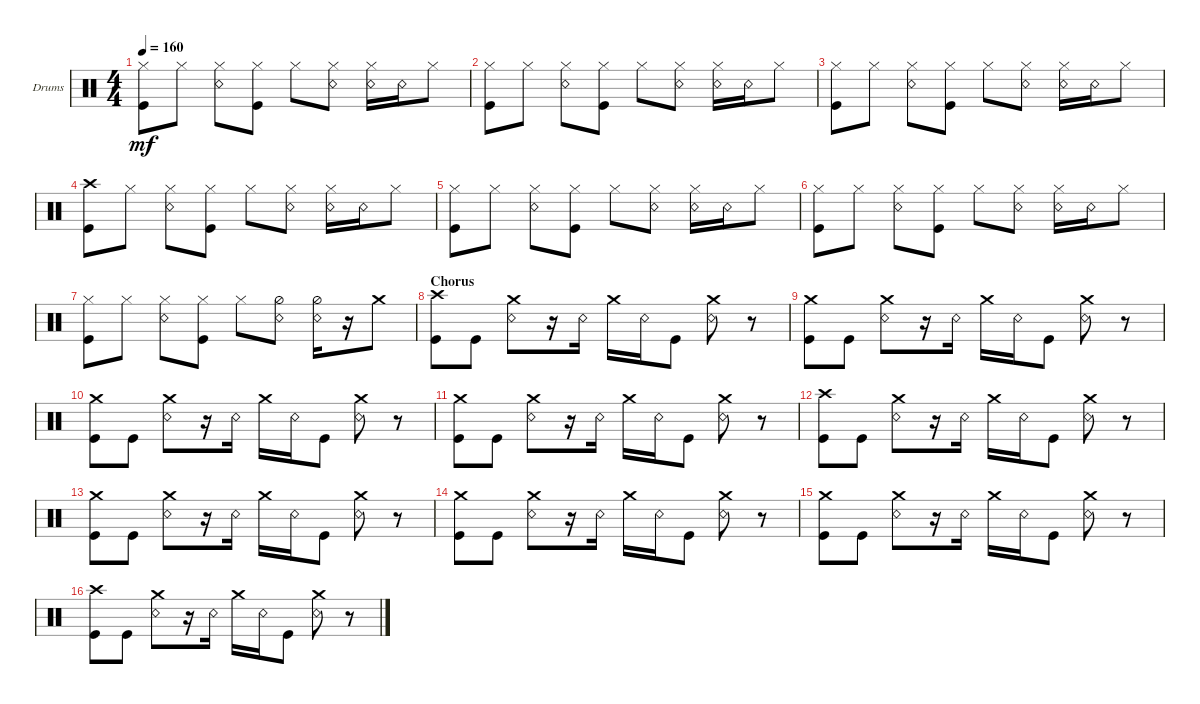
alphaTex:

\defaultSystemsLayout 4
\bracketExtendMode groupsimilarinstruments
\firstSystemTrackNameOrientation horizontal
\otherSystemsTrackNameOrientation horizontal
\track ("Drumkit" "Drums") {instrument percussion}
\staff {score}
\articulation defaults
\ts (4 4)
\tempo 160
\clef neutral
\ks c
("Kick (hit)" "Hi-Hat (closed)").8{dy mf} "Hi-Hat (closed)".8 ("Snare (rim shot)" "Hi-Hat (closed)").8 ("Hi-Hat (closed)" "Kick (hit)").8 "Hi-Hat (closed)".8 ("Snare (rim shot)" "Hi-Hat (closed)").8 ("Snare (rim shot)" "Hi-Hat (closed)").16 "Snare (rim shot)".16 "Hi-Hat (closed)".8 |
("Kick (hit)" "Hi-Hat (closed)").8 "Hi-Hat (closed)".8 ("Snare (rim shot)" "Hi-Hat (closed)").8 ("Hi-Hat (closed)" "Kick (hit)").8 "Hi-Hat (closed)".8 ("Snare (rim shot)" "Hi-Hat (closed)").8 ("Snare (rim shot)" "Hi-Hat (closed)").16 "Snare (rim shot)".16 "Hi-Hat (closed)".8 |
("Kick (hit)" "Hi-Hat (closed)").8 "Hi-Hat (closed)".8 ("Snare (rim shot)" "Hi-Hat (closed)").8 ("Hi-Hat (closed)" "Kick (hit)").8 "Hi-Hat (closed)".8 ("Snare (rim shot)" "Hi-Hat (closed)").8 ("Snare (rim shot)" "Hi-Hat (closed)").16 "Snare (rim shot)".16 "Hi-Hat (closed)".8 |
("Kick (hit)" "Crash high (hit)").8 "Hi-Hat (closed)".8 ("Snare (rim shot)" "Hi-Hat (closed)").8 ("Hi-Hat (closed)" "Kick (hit)").8 "Hi-Hat (closed)".8 ("Snare (rim shot)" "Hi-Hat (closed)").8 ("Snare (rim shot)" "Hi-Hat (closed)").16 "Snare (rim shot)".16 "Hi-Hat (closed)".8 |
("Kick (hit)" "Hi-Hat (closed)").8 "Hi-Hat (closed)".8 ("Snare (rim shot)" "Hi-Hat (closed)").8 ("Hi-Hat (closed)" "Kick (hit)").8 "Hi-Hat (closed)".8 ("Snare (rim shot)" "Hi-Hat (closed)").8 ("Snare (rim shot)" "Hi-Hat (closed)").16 "Snare (rim shot)".16 "Hi-Hat (closed)".8 |
("Kick (hit)" "Hi-Hat (closed)").8 "Hi-Hat (closed)".8 ("Snare (rim shot)" "Hi-Hat (closed)").8 ("Hi-Hat (closed)" "Kick (hit)").8 "Hi-Hat (closed)".8 ("Snare (rim shot)" "Hi-Hat (closed)").8 ("Snare (rim shot)" "Hi-Hat (closed)").16 "Snare (rim shot)".16 "Hi-Hat (closed)".8 |
("Kick (hit)" "Hi-Hat (closed)").8 "Hi-Hat (closed)".8 ("Snare (rim shot)" "Hi-Hat (closed)").8 ("Hi-Hat (closed)" "Kick (hit)").8 "Hi-Hat (closed)".8 ("Snare (rim shot)" "Hi-Hat (half)").8 ("Snare (rim shot)" "Hi-Hat (half)").16 r.16 "Crash medium (hit)".8 |
\section ("" "Chorus")
("Kick (hit)" "Crash high (hit)").8 "Kick (hit)".8 ("Snare (rim shot)" "Crash medium (hit)").8 r.16 "Snare (rim shot)".16 "Crash medium (hit)".16 "Snare (rim shot)".16 "Kick (hit)".8 ("Snare (rim shot)" "Crash medium (hit)").8 r.8 |
("Kick (hit)" "Crash medium (hit)").8 "Kick (hit)".8 ("Snare (rim shot)" "Crash medium (hit)").8 r.16 "Snare (rim shot)".16 "Crash medium (hit)".16 "Snare (rim shot)".16 "Kick (hit)".8 ("Snare (rim shot)" "Crash medium (hit)").8 r.8 |
("Kick (hit)" "Crash medium (hit)").8 "Kick (hit)".8 ("Snare (rim shot)" "Crash medium (hit)").8 r.16 "Snare (rim shot)".16 "Crash medium (hit)".16 "Snare (rim shot)".16 "Kick (hit)".8 ("Snare (rim shot)" "Crash medium (hit)").8 r.8 |
("Kick (hit)" "Crash medium (hit)").8 "Kick (hit)".8 ("Snare (rim shot)" "Crash medium (hit)").8 r.16 "Snare (rim shot)".16 "Crash medium (hit)".16 "Snare (rim shot)".16 "Kick (hit)".8 ("Snare (rim shot)" "Crash medium (hit)").8 r.8 |
("Kick (hit)" "Crash high (hit)").8 "Kick (hit)".8 ("Snare (rim shot)" "Crash medium (hit)").8 r.16 "Snare (rim shot)".16 "Crash medium (hit)".16 "Snare (rim shot)".16 "Kick (hit)".8 ("Snare (rim shot)" "Crash medium (hit)").8 r.8 |
("Kick (hit)" "Crash medium (hit)").8 "Kick (hit)".8 ("Snare (rim shot)" "Crash medium (hit)").8 r.16 "Snare (rim shot)".16 "Crash medium (hit)".16 "Snare (rim shot)".16 "Kick (hit)".8 ("Snare (rim shot)" "Crash medium (hit)").8 r.8 |
("Kick (hit)" "Crash medium (hit)").8 "Kick (hit)".8 ("Snare (rim shot)" "Crash medium (hit)").8 r.16 "Snare (rim shot)".16 "Crash medium (hit)".16 "Snare (rim shot)".16 "Kick (hit)".8 ("Snare (rim shot)" "Crash medium (hit)").8 r.8 |
("Kick (hit)" "Crash medium (hit)").8 "Kick (hit)".8 ("Snare (rim shot)" "Crash medium (hit)").8 r.16 "Snare (rim shot)".16 "Crash medium (hit)".16 "Snare (rim shot)".16 "Kick (hit)".8 ("Snare (rim shot)" "Crash medium (hit)").8 r.8 |
("Kick (hit)" "Crash high (hit)").8 "Kick (hit)".8 ("Snare (rim shot)" "Crash medium (hit)").8 r.16 "Snare (rim shot)".16 "Crash medium (hit)".16 "Snare (rim shot)".16 "Kick (hit)".8 ("Snare (rim shot)" "Crash medium (hit)").8 r.8
